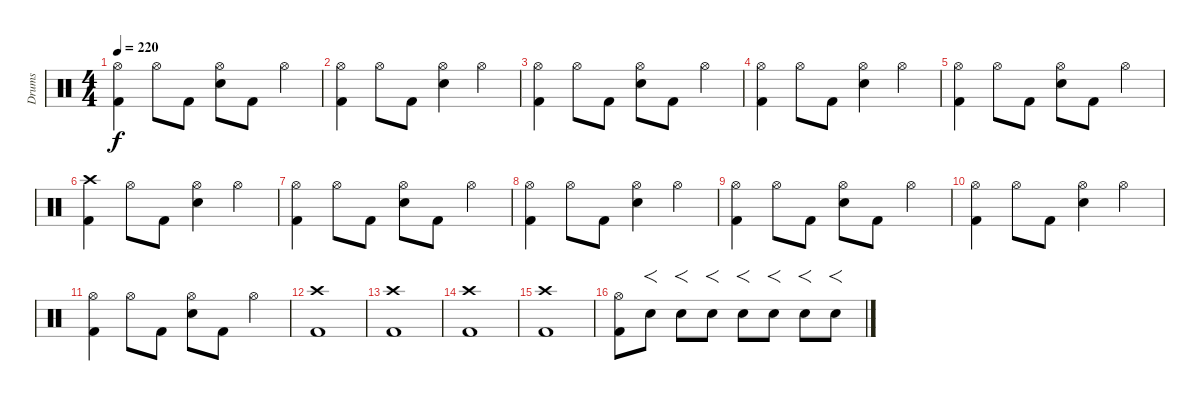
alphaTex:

\track ("Drums" "Drums") {instrument percussion}
\staff {score}
\articulation defaults
\ts (4 4)
\tempo 220
\clef neutral
\ks c
("Hi-Hat (open)" "Kick (hit) 2").4{dy f} "Hi-Hat (open)".8 "Kick (hit) 2".8 ("Hi-Hat (open)" "Snare (hit) 2").8 "Kick (hit) 2".8 "Hi-Hat (open)".4 |
("Hi-Hat (open)" "Kick (hit) 2").4 "Hi-Hat (open)".8 "Kick (hit) 2".8 ("Hi-Hat (open)" "Snare (hit) 2").4 "Hi-Hat (open)".4 |
("Hi-Hat (open)" "Kick (hit) 2").4 "Hi-Hat (open)".8 "Kick (hit) 2".8 ("Hi-Hat (open)" "Snare (hit) 2").8 "Kick (hit) 2".8 "Hi-Hat (open)".4 |
("Hi-Hat (open)" "Kick (hit) 2").4 "Hi-Hat (open)".8 "Kick (hit) 2".8 ("Hi-Hat (open)" "Snare (hit) 2").4 "Hi-Hat (open)".4 |
("Hi-Hat (open)" "Kick (hit) 2").4 "Hi-Hat (open)".8 "Kick (hit) 2".8 ("Hi-Hat (open)" "Snare (hit) 2").8 "Kick (hit) 2".8 "Hi-Hat (open)".4 |
("Crash high (hit)" "Kick (hit) 2").4 "Hi-Hat (open)".8 "Kick (hit) 2".8 ("Hi-Hat (open)" "Snare (hit) 2").4 "Hi-Hat (open)".4 |
("Hi-Hat (open)" "Kick (hit) 2").4 "Hi-Hat (open)".8 "Kick (hit) 2".8 ("Hi-Hat (open)" "Snare (hit) 2").8 "Kick (hit) 2".8 "Hi-Hat (open)".4 |
("Hi-Hat (open)" "Kick (hit) 2").4 "Hi-Hat (open)".8 "Kick (hit) 2".8 ("Hi-Hat (open)" "Snare (hit) 2").4 "Hi-Hat (open)".4 |
("Hi-Hat (open)" "Kick (hit) 2").4 "Hi-Hat (open)".8 "Kick (hit) 2".8 ("Hi-Hat (open)" "Snare (hit) 2").8 "Kick (hit) 2".8 "Hi-Hat (open)".4 |
("Hi-Hat (open)" "Kick (hit) 2").4 "Hi-Hat (open)".8 "Kick (hit) 2".8 ("Hi-Hat (open)" "Snare (hit) 2").4 "Hi-Hat (open)".4 |
("Hi-Hat (open)" "Kick (hit) 2").4 "Hi-Hat (open)".8 "Kick (hit) 2".8 ("Hi-Hat (open)" "Snare (hit) 2").8 "Kick (hit) 2".8 "Hi-Hat (open)".4 |
("Crash high (hit)" "Kick (hit) 2").1 |
("Crash high (hit)" "Kick (hit) 2").1 |
("Crash high (hit)" "Kick (hit) 2").1 |
("Crash high (hit)" "Kick (hit) 2").1 |
("Hi-Hat (open)" "Kick (hit) 2").8 "Snare (hit) 2".8{f} "Snare (hit) 2".8{f} "Snare (hit) 2".8{f} "Snare (hit) 2".8{f} "Snare (hit) 2".8{f} "Snare (hit) 2".8{f} "Snare (hit) 2".8{f}
